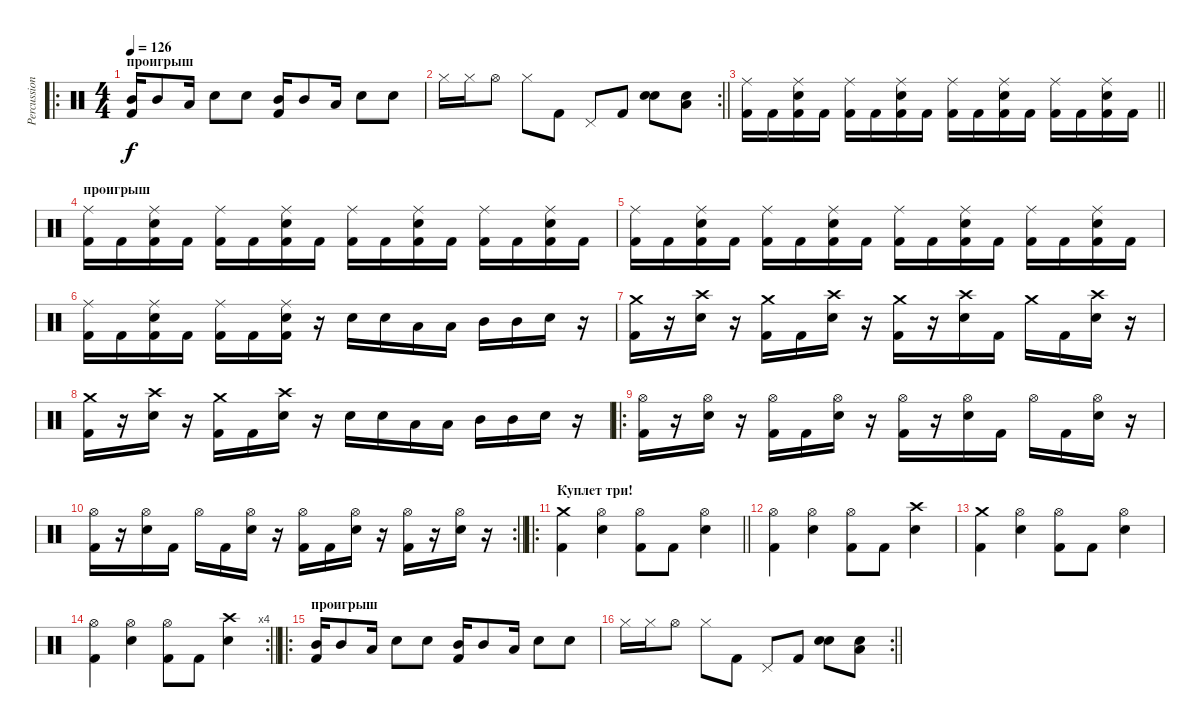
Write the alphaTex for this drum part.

\track ("Percussion" "Percussion") {instrument percussion bank 127}
\staff {score}
\articulation defaults
\ro
\ts (4 4)
\section ("" "проигрыш")
\tempo 126
\clef neutral
\ks c
("Mid Tom (hit)" "Kick (hit) 2").16{dy f} "Mid Tom (hit)".8 "Low Tom (hit)".16 "Snare (hit) 2".8 "Snare (hit) 2".8 ("Mid Tom (hit)" "Kick (hit) 2").16 "Mid Tom (hit)".8 "Low Tom (hit)".16 "Snare (hit) 2".8 "Snare (hit) 2".8 |
\rc 2
\barLineRight lightlight "Hi-Hat (closed)".16 "Hi-Hat (closed)".16 "Hi-Hat (open)".8 "Hi-Hat (closed)".8 "Kick (hit) 2".8 "Pedal Hi-Hat (hit)".8 "Kick (hit) 2".8
("Snare (hit) 2" "Snare (hit) 2").8 ("Low Tom (hit)" "Snare (hit) 2").8 |
\barLineRight lightlight
("Ride (middle)" "Kick (hit) 2").16 "Kick (hit) 2".16 ("Ride (middle)" "Snare (hit) 2" "Kick (hit) 2").16 "Kick (hit) 2".16 ("Ride (middle)" "Kick (hit) 2").16 "Kick (hit) 2".16 ("Ride (middle)" "Snare (hit) 2" "Kick (hit) 2").16 "Kick (hit) 2".16 ("Ride (middle)" "Kick (hit) 2").16 "Kick (hit) 2".16 ("Ride (middle)" "Snare (hit) 2" "Kick (hit) 2").16 "Kick (hit) 2".16 ("Ride (middle)" "Kick (hit) 2").16 "Kick (hit) 2".16 ("Ride (middle)" "Snare (hit) 2" "Kick (hit) 2").16 "Kick (hit) 2".16 |
\section ("" "проигрыш")
("Ride (middle)" "Kick (hit) 2").16 "Kick (hit) 2".16 ("Ride (middle)" "Snare (hit) 2" "Kick (hit) 2").16 "Kick (hit) 2".16 ("Ride (middle)" "Kick (hit) 2").16 "Kick (hit) 2".16 ("Ride (middle)" "Snare (hit) 2" "Kick (hit) 2").16 "Kick (hit) 2".16 ("Ride (middle)" "Kick (hit) 2").16 "Kick (hit) 2".16 ("Ride (middle)" "Snare (hit) 2" "Kick (hit) 2").16 "Kick (hit) 2".16 ("Ride (middle)" "Kick (hit) 2").16 "Kick (hit) 2".16 ("Ride (middle)" "Snare (hit) 2" "Kick (hit) 2").16 "Kick (hit) 2".16 |
("Ride (middle)" "Kick (hit) 2").16 "Kick (hit) 2".16 ("Ride (middle)" "Snare (hit) 2" "Kick (hit) 2").16 "Kick (hit) 2".16 ("Ride (middle)" "Kick (hit) 2").16 "Kick (hit) 2".16 ("Ride (middle)" "Snare (hit) 2" "Kick (hit) 2").16 "Kick (hit) 2".16 ("Ride (middle)" "Kick (hit) 2").16 "Kick (hit) 2".16 ("Ride (middle)" "Snare (hit) 2" "Kick (hit) 2").16 "Kick (hit) 2".16 ("Ride (middle)" "Kick (hit) 2").16 "Kick (hit) 2".16 ("Ride (middle)" "Snare (hit) 2" "Kick (hit) 2").16 "Kick (hit) 2".16 |
("Ride (middle)" "Kick (hit) 2").16 "Kick (hit) 2".16 ("Ride (middle)" "Snare (hit) 2" "Kick (hit) 2").16 "Kick (hit) 2".16 ("Ride (middle)" "Kick (hit) 2").16 "Kick (hit) 2".16 ("Ride (middle)" "Snare (hit) 2" "Kick (hit) 2").16 r.16 "Snare (hit) 2".16 "Snare (hit) 2".16 "Low Tom (hit)".16 "Low Tom (hit)".16 "Mid Tom (hit)".16 "Mid Tom (hit)".16 "Snare (hit) 2".16 r.16 |
("Crash medium (hit)" "Kick (hit) 2").16 r.16 ("Crash high (hit)" "Snare (hit) 2").16 r.16 ("Crash medium (hit)" "Kick (hit) 2").16 "Kick (hit) 2".16 ("Crash high (hit)" "Snare (hit) 2").16 r.16 ("Crash medium (hit)" "Kick (hit) 2").16 r.16 ("Crash high (hit)" "Snare (hit) 2").16 "Kick (hit) 2".16 "Crash medium (hit)".16 "Kick (hit) 2".16 ("Crash high (hit)" "Snare (hit) 2").16 r.16 |
("Crash medium (hit)" "Kick (hit) 2").16 r.16 ("Crash high (hit)" "Snare (hit) 2").16 r.16 ("Crash medium (hit)" "Kick (hit) 2").16 "Kick (hit) 2".16 ("Crash high (hit)" "Snare (hit) 2").16 r.16 "Snare (hit) 2".16 "Snare (hit) 2".16 "Low Tom (hit)".16 "Low Tom (hit)".16 "Mid Tom (hit)".16 "Mid Tom (hit)".16 "Snare (hit) 2".16 r.16 |
\ro
("Hi-Hat (open)" "Kick (hit) 2").16 r.16 ("Hi-Hat (open)" "Snare (hit) 2").16 r.16 ("Hi-Hat (open)" "Kick (hit) 2").16 "Kick (hit) 2".16 ("Hi-Hat (open)" "Snare (hit) 2").16 r.16 ("Hi-Hat (open)" "Kick (hit) 2").16 r.16 ("Hi-Hat (open)" "Snare (hit) 2").16 "Kick (hit) 2".16 "Hi-Hat (open)".16 "Kick (hit) 2".16 ("Hi-Hat (open)" "Snare (hit) 2").16 r.16 |
\rc 2
\barLineRight lightlight
("Hi-Hat (open)" "Kick (hit) 2").16 r.16 ("Hi-Hat (open)" "Snare (hit) 2").16 "Kick (hit) 2".16 "Hi-Hat (open)".16 "Kick (hit) 2".16 ("Hi-Hat (open)" "Snare (hit) 2").16 r.16 ("Hi-Hat (open)" "Kick (hit) 2").16 "Kick (hit) 2".16 ("Hi-Hat (open)" "Snare (hit) 2").16 r.16 ("Hi-Hat (open)" "Kick (hit) 2").16 r.16 ("Hi-Hat (open)" "Snare (hit) 2").16 r.16 |
\ro
\section ("" "Куплет три!")
\barLineRight lightlight
("Crash medium (hit)" "Kick (hit) 2").4 ("Hi-Hat (open)" "Snare (hit) 2").4 ("Hi-Hat (open)" "Kick (hit) 2").8 "Kick (hit) 2".8 ("Hi-Hat (open)" "Snare (hit) 2").4 |
\section ("" "")
("Hi-Hat (open)" "Kick (hit) 2").4 ("Hi-Hat (open)" "Snare (hit) 2").4 ("Hi-Hat (open)" "Kick (hit) 2").8 "Kick (hit) 2".8 ("Crash high (hit)" "Snare (hit) 2").4 |
("Crash medium (hit)" "Kick (hit) 2").4 ("Hi-Hat (open)" "Snare (hit) 2").4 ("Hi-Hat (open)" "Kick (hit) 2").8 "Kick (hit) 2".8 ("Hi-Hat (open)" "Snare (hit) 2").4 |
\rc 4
\barLineRight lightlight
("Hi-Hat (open)" "Kick (hit) 2").4 ("Hi-Hat (open)" "Snare (hit) 2").4 ("Hi-Hat (open)" "Kick (hit) 2").8 "Kick (hit) 2".8 ("Crash high (hit)" "Snare (hit) 2").4 |
\ro
\section ("" "проигрыш")
("Mid Tom (hit)" "Kick (hit) 2").16 "Mid Tom (hit)".8 "Low Tom (hit)".16 "Snare (hit) 2".8 "Snare (hit) 2".8 ("Mid Tom (hit)" "Kick (hit) 2").16 "Mid Tom (hit)".8 "Low Tom (hit)".16 "Snare (hit) 2".8 "Snare (hit) 2".8 |
\rc 2
\barLineRight lightlight "Hi-Hat (closed)".16 "Hi-Hat (closed)".16 "Hi-Hat (open)".8 "Hi-Hat (closed)".8 "Kick (hit) 2".8 "Pedal Hi-Hat (hit)".8 "Kick (hit) 2".8
("Snare (hit) 2" "Snare (hit) 2").8 ("Low Tom (hit)" "Snare (hit) 2").8
